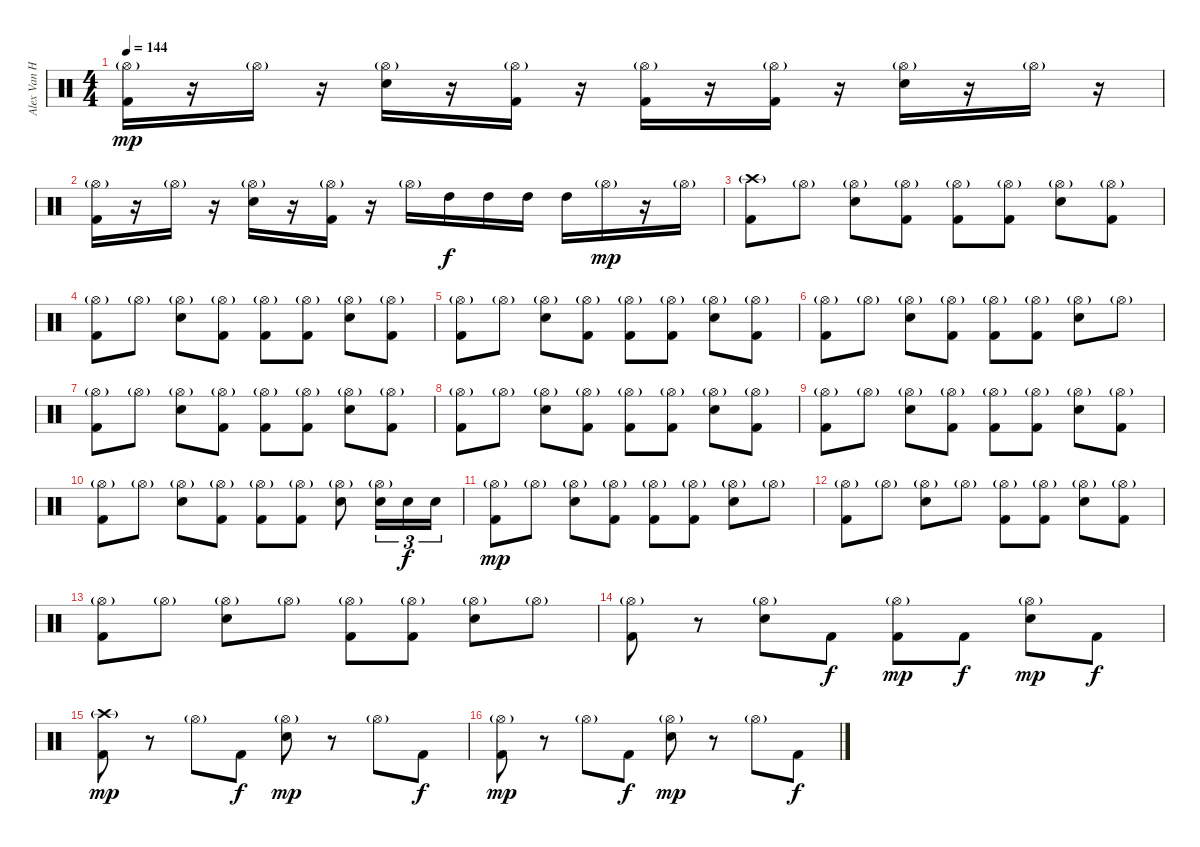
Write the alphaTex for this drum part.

\track ("Alex Van Halen" "Alex Van H") {instrument percussion}
\staff {score}
\articulation defaults
\ts (4 4)
\tempo 144
\clef neutral
\ks c
("Hi-Hat (open)"{g} "Kick (hit) 2").16{dy mp} r.16 "Hi-Hat (open)"{g}.16 r.16 ("Hi-Hat (open)"{g} "Electric Snare (hit)").16 r.16 ("Hi-Hat (open)"{g} "Kick (hit) 2").16 r.16 ("Hi-Hat (open)"{g} "Kick (hit) 2").16 r.16 ("Hi-Hat (open)"{g} "Kick (hit) 2").16 r.16 ("Hi-Hat (open)"{g} "Electric Snare (hit)").16 r.16 "Hi-Hat (open)"{g}.16 r.16 |
("Hi-Hat (open)"{g} "Kick (hit) 2").16 r.16 "Hi-Hat (open)"{g}.16 r.16 ("Hi-Hat (open)"{g} "Electric Snare (hit)").16 r.16 ("Hi-Hat (open)"{g} "Kick (hit) 2").16 r.16 "Hi-Hat (open)"{g}.16 "High Tom (hit)".16{dy f} "High Tom (hit)".16 "High Tom (hit)".16 "High Tom (hit)".16 "Hi-Hat (open)"{g}.16{dy mp} r.16 "Hi-Hat (open)"{g}.16 |
("Crash high (hit)"{g} "Kick (hit) 2").8 "Hi-Hat (open)"{g}.8 ("Hi-Hat (open)"{g} "Electric Snare (hit)").8 ("Hi-Hat (open)"{g} "Kick (hit) 2").8 ("Hi-Hat (open)"{g} "Kick (hit) 2").8 ("Hi-Hat (open)"{g} "Kick (hit) 2").8 ("Hi-Hat (open)"{g} "Electric Snare (hit)").8 ("Hi-Hat (open)"{g} "Kick (hit) 2").8 |
("Hi-Hat (open)"{g} "Kick (hit) 2").8 "Hi-Hat (open)"{g}.8 ("Hi-Hat (open)"{g} "Electric Snare (hit)").8 ("Hi-Hat (open)"{g} "Kick (hit) 2").8 ("Hi-Hat (open)"{g} "Kick (hit) 2").8 ("Hi-Hat (open)"{g} "Kick (hit) 2").8 ("Hi-Hat (open)"{g} "Electric Snare (hit)").8 ("Hi-Hat (open)"{g} "Kick (hit) 2").8 |
("Hi-Hat (open)"{g} "Kick (hit) 2").8 "Hi-Hat (open)"{g}.8 ("Hi-Hat (open)"{g} "Electric Snare (hit)").8 ("Hi-Hat (open)"{g} "Kick (hit) 2").8 ("Hi-Hat (open)"{g} "Kick (hit) 2").8 ("Hi-Hat (open)"{g} "Kick (hit) 2").8 ("Hi-Hat (open)"{g} "Electric Snare (hit)").8 ("Hi-Hat (open)"{g} "Kick (hit) 2").8 |
("Hi-Hat (open)"{g} "Kick (hit) 2").8 "Hi-Hat (open)"{g}.8 ("Hi-Hat (open)"{g} "Electric Snare (hit)").8 ("Hi-Hat (open)"{g} "Kick (hit) 2").8 ("Hi-Hat (open)"{g} "Kick (hit) 2").8 ("Hi-Hat (open)"{g} "Kick (hit) 2").8 ("Hi-Hat (open)"{g} "Electric Snare (hit)").8 "Hi-Hat (open)"{g}.8 |
("Hi-Hat (open)"{g} "Kick (hit) 2").8 "Hi-Hat (open)"{g}.8 ("Hi-Hat (open)"{g} "Electric Snare (hit)").8 ("Hi-Hat (open)"{g} "Kick (hit) 2").8 ("Hi-Hat (open)"{g} "Kick (hit) 2").8 ("Hi-Hat (open)"{g} "Kick (hit) 2").8 ("Hi-Hat (open)"{g} "Electric Snare (hit)").8 ("Hi-Hat (open)"{g} "Kick (hit) 2").8 |
("Hi-Hat (open)"{g} "Kick (hit) 2").8 "Hi-Hat (open)"{g}.8 ("Hi-Hat (open)"{g} "Electric Snare (hit)").8 ("Hi-Hat (open)"{g} "Kick (hit) 2").8 ("Hi-Hat (open)"{g} "Kick (hit) 2").8 ("Hi-Hat (open)"{g} "Kick (hit) 2").8 ("Hi-Hat (open)"{g} "Electric Snare (hit)").8 ("Hi-Hat (open)"{g} "Kick (hit) 2").8 |
("Hi-Hat (open)"{g} "Kick (hit) 2").8 "Hi-Hat (open)"{g}.8 ("Hi-Hat (open)"{g} "Electric Snare (hit)").8 ("Hi-Hat (open)"{g} "Kick (hit) 2").8 ("Hi-Hat (open)"{g} "Kick (hit) 2").8 ("Hi-Hat (open)"{g} "Kick (hit) 2").8 ("Hi-Hat (open)"{g} "Electric Snare (hit)").8 ("Hi-Hat (open)"{g} "Kick (hit) 2").8 |
("Hi-Hat (open)"{g} "Kick (hit) 2").8 "Hi-Hat (open)"{g}.8 ("Hi-Hat (open)"{g} "Electric Snare (hit)").8 ("Hi-Hat (open)"{g} "Kick (hit) 2").8 ("Hi-Hat (open)"{g} "Kick (hit) 2").8 ("Hi-Hat (open)"{g} "Kick (hit) 2").8 ("Hi-Hat (open)"{g} "Electric Snare (hit)").8 ("Hi-Hat (open)"{g} "Electric Snare (hit)").16{tu (3 2)} "Electric Snare (hit)".16{tu (3 2) dy f} "Electric Snare (hit)".16{tu (3 2)} |
("Hi-Hat (open)"{g} "Kick (hit) 2").8{dy mp} "Hi-Hat (open)"{g}.8 ("Hi-Hat (open)"{g} "Electric Snare (hit)").8 ("Hi-Hat (open)"{g} "Kick (hit) 2").8 ("Hi-Hat (open)"{g} "Kick (hit) 2").8 ("Hi-Hat (open)"{g} "Kick (hit) 2").8 ("Hi-Hat (open)"{g} "Electric Snare (hit)").8 "Hi-Hat (open)"{g}.8 |
("Hi-Hat (open)"{g} "Kick (hit) 2").8 "Hi-Hat (open)"{g}.8 ("Hi-Hat (open)"{g} "Electric Snare (hit)").8 "Hi-Hat (open)"{g}.8 ("Hi-Hat (open)"{g} "Kick (hit) 2").8 ("Hi-Hat (open)"{g} "Kick (hit) 2").8 ("Hi-Hat (open)"{g} "Electric Snare (hit)").8 ("Hi-Hat (open)"{g} "Kick (hit) 2").8 |
("Hi-Hat (open)"{g} "Kick (hit) 2").8 "Hi-Hat (open)"{g}.8 ("Hi-Hat (open)"{g} "Electric Snare (hit)").8 "Hi-Hat (open)"{g}.8 ("Hi-Hat (open)"{g} "Kick (hit) 2").8 ("Hi-Hat (open)"{g} "Kick (hit) 2").8 ("Hi-Hat (open)"{g} "Electric Snare (hit)").8 "Hi-Hat (open)"{g}.8 |
("Hi-Hat (open)"{g} "Kick (hit) 2").8 r.8 ("Hi-Hat (open)"{g} "Electric Snare (hit)").8 "Kick (hit) 2".8{dy f} ("Hi-Hat (open)"{g} "Kick (hit) 2").8{dy mp} "Kick (hit) 2".8{dy f} ("Hi-Hat (open)"{g} "Electric Snare (hit)").8{dy mp} "Kick (hit) 2".8{dy f} |
("Crash high (hit)"{g} "Kick (hit) 2").8{dy mp} r.8 "Hi-Hat (open)"{g}.8 "Kick (hit) 2".8{dy f} ("Hi-Hat (open)"{g} "Electric Snare (hit)").8{dy mp} r.8 "Hi-Hat (open)"{g}.8 "Kick (hit) 2".8{dy f} |
("Hi-Hat (open)"{g} "Kick (hit) 2").8{dy mp} r.8 "Hi-Hat (open)"{g}.8 "Kick (hit) 2".8{dy f} ("Hi-Hat (open)"{g} "Electric Snare (hit)").8{dy mp} r.8 "Hi-Hat (open)"{g}.8 "Kick (hit) 2".8{dy f}
